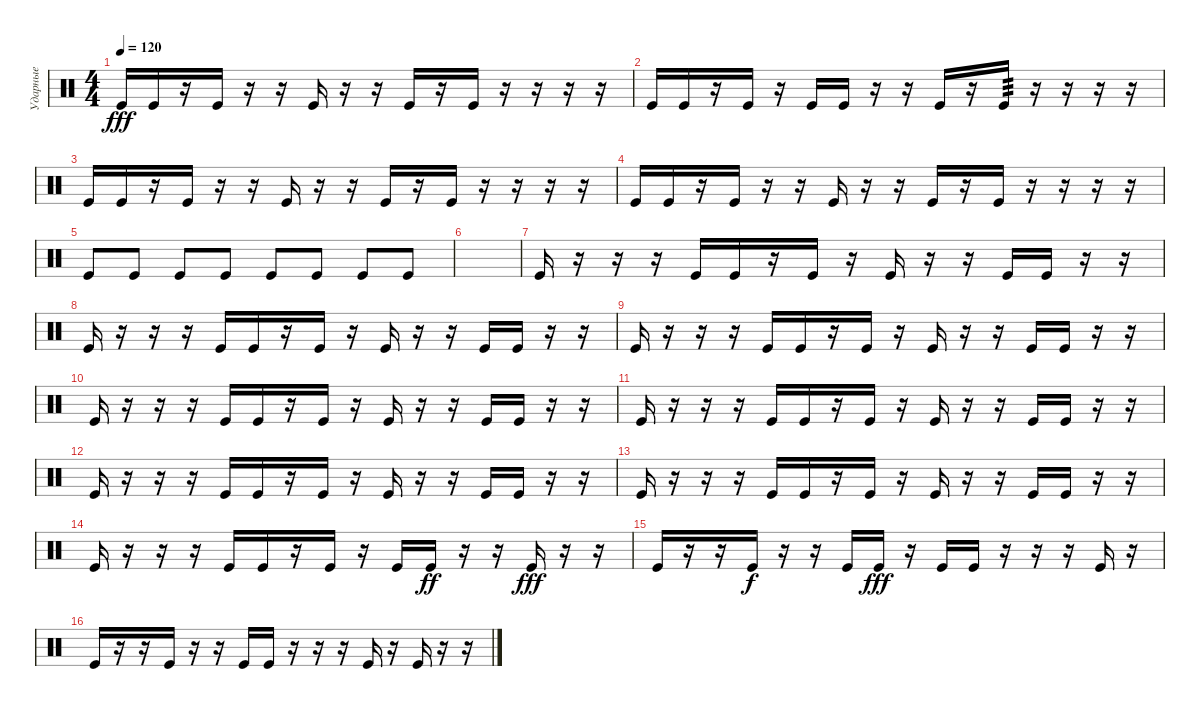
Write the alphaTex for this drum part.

\track ("Ударные" "Ударные") {instrument percussion}
\staff {score}
\articulation defaults
\ts (4 4)
\tempo 120
\clef neutral
\ks c "Kick (hit)".16{dy fff} "Kick (hit)".16
r.16 "Kick (hit)".16 r.16 r.16 "Kick (hit)".16 r.16 r.16 "Kick (hit)".16 r.16 "Kick (hit)".16 r.16 r.16 r.16 r.16 |
"Kick (hit)".16 "Kick (hit)".16 r.16 "Kick (hit)".16 r.16 "Kick (hit)".16 "Kick (hit)".16 r.16 r.16 "Kick (hit)".16 r.16 "Kick (hit)".16{tp 3} r.16 r.16 r.16 r.16 |
"Kick (hit)".16 "Kick (hit)".16 r.16 "Kick (hit)".16 r.16 r.16 "Kick (hit)".16 r.16 r.16 "Kick (hit)".16 r.16 "Kick (hit)".16 r.16 r.16 r.16 r.16 |
"Kick (hit)".16 "Kick (hit)".16 r.16 "Kick (hit)".16 r.16 r.16 "Kick (hit)".16 r.16 r.16 "Kick (hit)".16 r.16 "Kick (hit)".16 r.16 r.16 r.16 r.16 |
"Kick (hit)".8 "Kick (hit)".8 "Kick (hit)".8 "Kick (hit)".8 "Kick (hit)".8 "Kick (hit)".8 "Kick (hit)".8 "Kick (hit)".8 |
|
"Kick (hit)".16 r.16 r.16 r.16 "Kick (hit)".16 "Kick (hit)".16 r.16 "Kick (hit)".16 r.16 "Kick (hit)".16 r.16 r.16 "Kick (hit)".16 "Kick (hit)".16 r.16 r.16 |
"Kick (hit)".16 r.16 r.16 r.16 "Kick (hit)".16 "Kick (hit)".16 r.16 "Kick (hit)".16 r.16 "Kick (hit)".16 r.16 r.16 "Kick (hit)".16 "Kick (hit)".16 r.16 r.16 |
"Kick (hit)".16 r.16 r.16 r.16 "Kick (hit)".16 "Kick (hit)".16 r.16 "Kick (hit)".16 r.16 "Kick (hit)".16 r.16 r.16 "Kick (hit)".16 "Kick (hit)".16 r.16 r.16 |
"Kick (hit)".16 r.16 r.16 r.16 "Kick (hit)".16 "Kick (hit)".16 r.16 "Kick (hit)".16 r.16 "Kick (hit)".16 r.16 r.16 "Kick (hit)".16 "Kick (hit)".16 r.16 r.16 |
"Kick (hit)".16 r.16 r.16 r.16 "Kick (hit)".16 "Kick (hit)".16 r.16 "Kick (hit)".16 r.16 "Kick (hit)".16 r.16 r.16 "Kick (hit)".16 "Kick (hit)".16 r.16 r.16 |
"Kick (hit)".16 r.16 r.16 r.16 "Kick (hit)".16 "Kick (hit)".16 r.16 "Kick (hit)".16 r.16 "Kick (hit)".16 r.16 r.16 "Kick (hit)".16 "Kick (hit)".16 r.16 r.16 |
"Kick (hit)".16 r.16 r.16 r.16 "Kick (hit)".16 "Kick (hit)".16 r.16 "Kick (hit)".16 r.16 "Kick (hit)".16 r.16 r.16 "Kick (hit)".16 "Kick (hit)".16 r.16 r.16 |
"Kick (hit)".16 r.16 r.16 r.16 "Kick (hit)".16 "Kick (hit)".16 r.16 "Kick (hit)".16 r.16 "Kick (hit)".16 "Kick (hit)".16{dy ff} r.16 r.16 "Kick (hit)".16{dy fff} r.16 r.16 |
"Kick (hit)".16 r.16 r.16 "Kick (hit)".16{dy f} r.16 r.16 "Kick (hit)".16 "Kick (hit)".16{dy fff} r.16 "Kick (hit)".16 "Kick (hit)".16 r.16 r.16 r.16 "Kick (hit)".16 r.16 |
"Kick (hit)".16 r.16 r.16 "Kick (hit)".16 r.16 r.16 "Kick (hit)".16 "Kick (hit)".16 r.16 r.16 r.16 "Kick (hit)".16 r.16 "Kick (hit)".16 r.16 r.16
